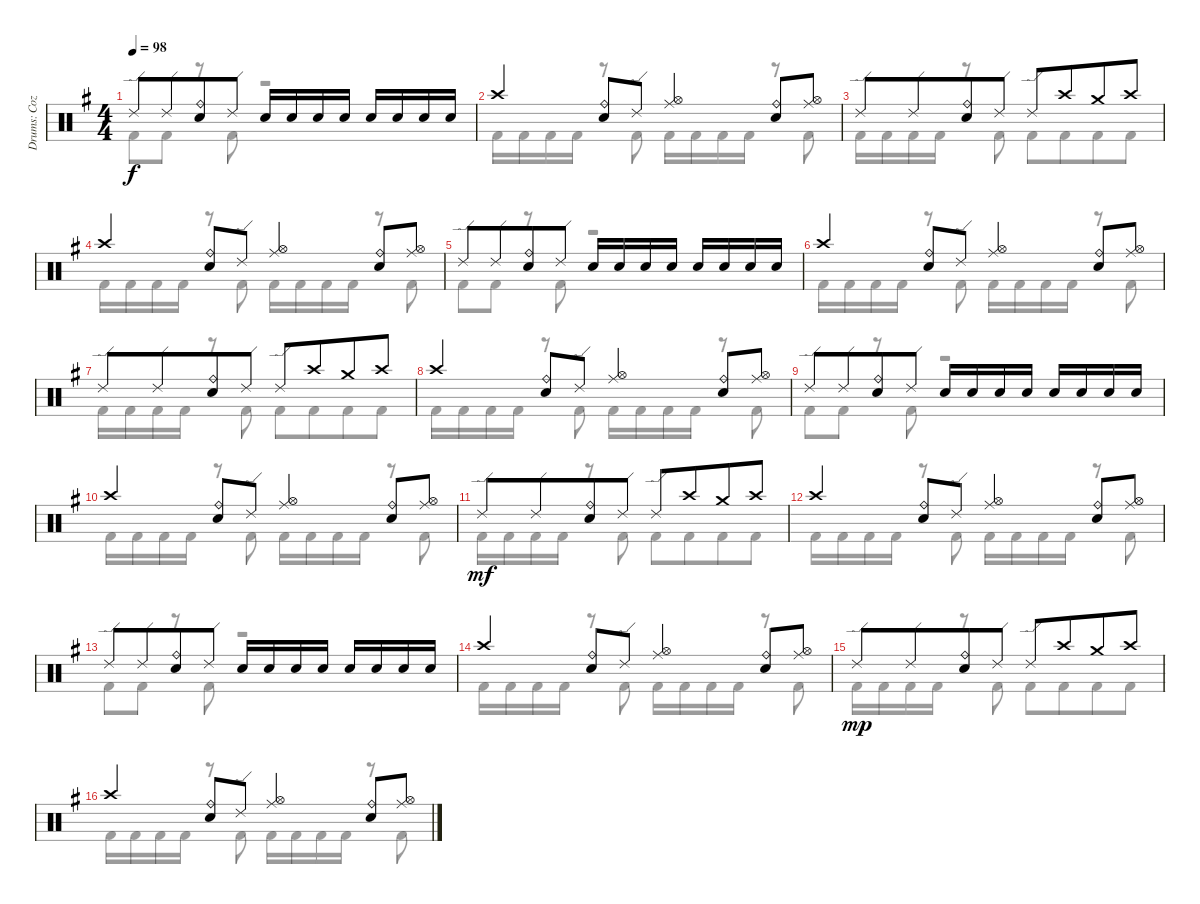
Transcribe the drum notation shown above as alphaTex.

\track ("Drums: Cozy" "Drums: Coz") {instrument percussion}
\staff {score}
\articulation defaults
\voice
\ts (4 4)
\tempo 98
\clef neutral
\ks g "Ride (edge) 2".8{dy f} "Ride (edge) 2".8{beam merge}
("Ride (bell)" "Snare (hit) 2").8 "Ride (edge) 2".8 "Snare (hit) 2".16 "Snare (hit) 2".16{beam merge} "Snare (hit) 2".16 "Snare (hit) 2".16 "Snare (hit) 2".16 "Snare (hit) 2".16{beam merge} "Snare (hit) 2".16 "Snare (hit) 2".16 |
"Crash high (hit)".4 ("Ride (bell)" "Snare (hit) 2").8 "Ride (edge) 2".8 ("Ride (middle)" "Hi-Hat (open)").4 ("Ride (bell)" "Snare (hit) 2").8 ("Ride (middle)" "Hi-Hat (open)").8 |
"Ride (edge) 2".8 "Ride (edge) 2".8{beam merge} ("Ride (bell)" "Snare (hit) 2").8 "Ride (edge) 2".8 "Ride (edge) 2".8 "Crash high (hit)".8{beam merge} "Crash medium (hit)".8 "Crash high (hit)".8 |
"Crash high (hit)".4 ("Ride (bell)" "Snare (hit) 2").8 "Ride (edge) 2".8 ("Ride (middle)" "Hi-Hat (open)").4 ("Ride (bell)" "Snare (hit) 2").8 ("Ride (middle)" "Hi-Hat (open)").8 |
"Ride (edge) 2".8 "Ride (edge) 2".8{beam merge} ("Ride (bell)" "Snare (hit) 2").8 "Ride (edge) 2".8 "Snare (hit) 2".16 "Snare (hit) 2".16{beam merge} "Snare (hit) 2".16 "Snare (hit) 2".16 "Snare (hit) 2".16 "Snare (hit) 2".16{beam merge} "Snare (hit) 2".16 "Snare (hit) 2".16 |
"Crash high (hit)".4 ("Ride (bell)" "Snare (hit) 2").8 "Ride (edge) 2".8 ("Ride (middle)" "Hi-Hat (open)").4 ("Ride (bell)" "Snare (hit) 2").8 ("Ride (middle)" "Hi-Hat (open)").8 |
"Ride (edge) 2".8 "Ride (edge) 2".8{beam merge} ("Ride (bell)" "Snare (hit) 2").8 "Ride (edge) 2".8 "Ride (edge) 2".8 "Crash high (hit)".8{beam merge} "Crash medium (hit)".8 "Crash high (hit)".8 |
"Crash high (hit)".4 ("Ride (bell)" "Snare (hit) 2").8 "Ride (edge) 2".8 ("Ride (middle)" "Hi-Hat (open)").4 ("Ride (bell)" "Snare (hit) 2").8 ("Ride (middle)" "Hi-Hat (open)").8 |
"Ride (edge) 2".8 "Ride (edge) 2".8{beam merge} ("Ride (bell)" "Snare (hit) 2").8 "Ride (edge) 2".8 "Snare (hit) 2".16 "Snare (hit) 2".16{beam merge} "Snare (hit) 2".16 "Snare (hit) 2".16 "Snare (hit) 2".16 "Snare (hit) 2".16{beam merge} "Snare (hit) 2".16 "Snare (hit) 2".16 |
"Crash high (hit)".4 ("Ride (bell)" "Snare (hit) 2").8 "Ride (edge) 2".8 ("Ride (middle)" "Hi-Hat (open)").4 ("Ride (bell)" "Snare (hit) 2").8 ("Ride (middle)" "Hi-Hat (open)").8 |
"Ride (edge) 2".8{dy mf} "Ride (edge) 2".8{beam merge} ("Ride (bell)" "Snare (hit) 2").8 "Ride (edge) 2".8 "Ride (edge) 2".8 "Crash high (hit)".8{beam merge} "Crash medium (hit)".8 "Crash high (hit)".8 |
"Crash high (hit)".4 ("Ride (bell)" "Snare (hit) 2").8 "Ride (edge) 2".8 ("Ride (middle)" "Hi-Hat (open)").4 ("Ride (bell)" "Snare (hit) 2").8 ("Ride (middle)" "Hi-Hat (open)").8 |
"Ride (edge) 2".8 "Ride (edge) 2".8{beam merge} ("Ride (bell)" "Snare (hit) 2").8 "Ride (edge) 2".8 "Snare (hit) 2".16 "Snare (hit) 2".16{beam merge} "Snare (hit) 2".16 "Snare (hit) 2".16 "Snare (hit) 2".16 "Snare (hit) 2".16{beam merge} "Snare (hit) 2".16 "Snare (hit) 2".16 |
"Crash high (hit)".4 ("Ride (bell)" "Snare (hit) 2").8 "Ride (edge) 2".8 ("Ride (middle)" "Hi-Hat (open)").4 ("Ride (bell)" "Snare (hit) 2").8 ("Ride (middle)" "Hi-Hat (open)").8 |
"Ride (edge) 2".8{dy mp volume 0} "Ride (edge) 2".8{beam merge} ("Ride (bell)" "Snare (hit) 2").8 "Ride (edge) 2".8 "Ride (edge) 2".8 "Crash high (hit)".8{beam merge} "Crash medium (hit)".8 "Crash high (hit)".8 |
"Crash high (hit)".4 ("Ride (bell)" "Snare (hit) 2").8 "Ride (edge) 2".8 ("Ride (middle)" "Hi-Hat (open)").4 ("Ride (bell)" "Snare (hit) 2").8 ("Ride (middle)" "Hi-Hat (open)").8
\voice
\clef neutral
\ottava regular
\simile none
\ks g "Kick (hit) 2".8{dy f} "Kick (hit) 2".8
r.8 "Kick (hit) 2".8 r.2 |
"Kick (hit) 2".16 "Kick (hit) 2".16 "Kick (hit) 2".16 "Kick (hit) 2".16 r.8 "Kick (hit) 2".8 "Kick (hit) 2".16 "Kick (hit) 2".16 "Kick (hit) 2".16 "Kick (hit) 2".16 r.8 "Kick (hit) 2".8 |
"Kick (hit) 2".16 "Kick (hit) 2".16 "Kick (hit) 2".16 "Kick (hit) 2".16 r.8{beam merge} "Kick (hit) 2".8 "Kick (hit) 2".8 "Kick (hit) 2".8{beam merge} "Kick (hit) 2".8 "Kick (hit) 2".8 |
"Kick (hit) 2".16 "Kick (hit) 2".16 "Kick (hit) 2".16 "Kick (hit) 2".16 r.8 "Kick (hit) 2".8 "Kick (hit) 2".16 "Kick (hit) 2".16 "Kick (hit) 2".16 "Kick (hit) 2".16 r.8 "Kick (hit) 2".8 |
"Kick (hit) 2".8 "Kick (hit) 2".8 r.8 "Kick (hit) 2".8 r.2 |
"Kick (hit) 2".16 "Kick (hit) 2".16 "Kick (hit) 2".16 "Kick (hit) 2".16 r.8 "Kick (hit) 2".8 "Kick (hit) 2".16 "Kick (hit) 2".16 "Kick (hit) 2".16 "Kick (hit) 2".16 r.8 "Kick (hit) 2".8 |
"Kick (hit) 2".16 "Kick (hit) 2".16 "Kick (hit) 2".16 "Kick (hit) 2".16 r.8{beam merge} "Kick (hit) 2".8 "Kick (hit) 2".8 "Kick (hit) 2".8{beam merge} "Kick (hit) 2".8 "Kick (hit) 2".8 |
"Kick (hit) 2".16 "Kick (hit) 2".16 "Kick (hit) 2".16 "Kick (hit) 2".16 r.8 "Kick (hit) 2".8 "Kick (hit) 2".16 "Kick (hit) 2".16 "Kick (hit) 2".16 "Kick (hit) 2".16 r.8 "Kick (hit) 2".8 |
"Kick (hit) 2".8 "Kick (hit) 2".8 r.8 "Kick (hit) 2".8 r.2 |
"Kick (hit) 2".16 "Kick (hit) 2".16 "Kick (hit) 2".16 "Kick (hit) 2".16 r.8 "Kick (hit) 2".8 "Kick (hit) 2".16 "Kick (hit) 2".16 "Kick (hit) 2".16 "Kick (hit) 2".16 r.8 "Kick (hit) 2".8 |
"Kick (hit) 2".16{dy mf} "Kick (hit) 2".16 "Kick (hit) 2".16 "Kick (hit) 2".16 r.8{beam merge} "Kick (hit) 2".8 "Kick (hit) 2".8 "Kick (hit) 2".8{beam merge} "Kick (hit) 2".8 "Kick (hit) 2".8 |
"Kick (hit) 2".16 "Kick (hit) 2".16 "Kick (hit) 2".16 "Kick (hit) 2".16 r.8 "Kick (hit) 2".8 "Kick (hit) 2".16 "Kick (hit) 2".16 "Kick (hit) 2".16 "Kick (hit) 2".16 r.8 "Kick (hit) 2".8 |
"Kick (hit) 2".8 "Kick (hit) 2".8 r.8 "Kick (hit) 2".8 r.2 |
"Kick (hit) 2".16 "Kick (hit) 2".16 "Kick (hit) 2".16 "Kick (hit) 2".16 r.8 "Kick (hit) 2".8 "Kick (hit) 2".16 "Kick (hit) 2".16 "Kick (hit) 2".16 "Kick (hit) 2".16 r.8 "Kick (hit) 2".8 |
"Kick (hit) 2".16{dy mp} "Kick (hit) 2".16 "Kick (hit) 2".16 "Kick (hit) 2".16 r.8{beam merge} "Kick (hit) 2".8 "Kick (hit) 2".8 "Kick (hit) 2".8{beam merge} "Kick (hit) 2".8 "Kick (hit) 2".8 |
"Kick (hit) 2".16 "Kick (hit) 2".16 "Kick (hit) 2".16 "Kick (hit) 2".16 r.8 "Kick (hit) 2".8 "Kick (hit) 2".16 "Kick (hit) 2".16 "Kick (hit) 2".16 "Kick (hit) 2".16 r.8 "Kick (hit) 2".8
